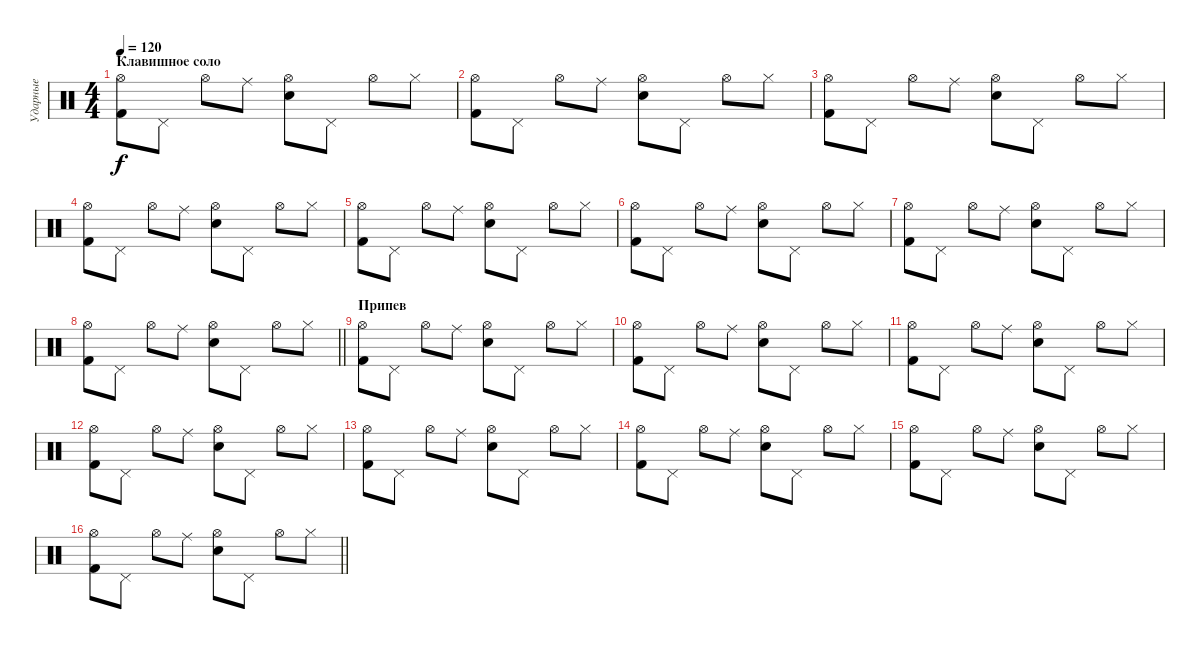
\track ("Ударные" "Ударные") {instrument percussion}
\staff {score}
\articulation defaults
\ts (4 4)
\section ("" "Клавишное соло")
\tempo 120
\clef neutral
\ks c
("Kick (hit) 2" "Hi-Hat (open)").8{dy f} "Pedal Hi-Hat (hit)".8 "Hi-Hat (open)".8 "Ride (middle)".8 ("Snare (hit) 2" "Hi-Hat (open)").8 "Pedal Hi-Hat (hit)".8 "Hi-Hat (open)".8 "Hi-Hat (closed)".8 |
("Kick (hit) 2" "Hi-Hat (open)").8 "Pedal Hi-Hat (hit)".8 "Hi-Hat (open)".8 "Ride (middle)".8 ("Snare (hit) 2" "Hi-Hat (open)").8 "Pedal Hi-Hat (hit)".8 "Hi-Hat (open)".8 "Hi-Hat (closed)".8 |
("Kick (hit) 2" "Hi-Hat (open)").8 "Pedal Hi-Hat (hit)".8 "Hi-Hat (open)".8 "Ride (middle)".8 ("Snare (hit) 2" "Hi-Hat (open)").8 "Pedal Hi-Hat (hit)".8 "Hi-Hat (open)".8 "Hi-Hat (closed)".8 |
("Kick (hit) 2" "Hi-Hat (open)").8 "Pedal Hi-Hat (hit)".8 "Hi-Hat (open)".8 "Ride (middle)".8 ("Snare (hit) 2" "Hi-Hat (open)").8 "Pedal Hi-Hat (hit)".8 "Hi-Hat (open)".8 "Hi-Hat (closed)".8 |
("Kick (hit) 2" "Hi-Hat (open)").8 "Pedal Hi-Hat (hit)".8 "Hi-Hat (open)".8 "Ride (middle)".8 ("Snare (hit) 2" "Hi-Hat (open)").8 "Pedal Hi-Hat (hit)".8 "Hi-Hat (open)".8 "Hi-Hat (closed)".8 |
("Kick (hit) 2" "Hi-Hat (open)").8 "Pedal Hi-Hat (hit)".8 "Hi-Hat (open)".8 "Ride (middle)".8 ("Snare (hit) 2" "Hi-Hat (open)").8 "Pedal Hi-Hat (hit)".8 "Hi-Hat (open)".8 "Hi-Hat (closed)".8 |
("Kick (hit) 2" "Hi-Hat (open)").8 "Pedal Hi-Hat (hit)".8 "Hi-Hat (open)".8 "Ride (middle)".8 ("Snare (hit) 2" "Hi-Hat (open)").8 "Pedal Hi-Hat (hit)".8 "Hi-Hat (open)".8 "Hi-Hat (closed)".8 |
\barLineRight lightlight
("Kick (hit) 2" "Hi-Hat (open)").8 "Pedal Hi-Hat (hit)".8 "Hi-Hat (open)".8 "Ride (middle)".8 ("Snare (hit) 2" "Hi-Hat (open)").8 "Pedal Hi-Hat (hit)".8 "Hi-Hat (open)".8 "Hi-Hat (closed)".8 |
\section ("" "Припев")
("Kick (hit) 2" "Hi-Hat (open)").8 "Pedal Hi-Hat (hit)".8 "Hi-Hat (open)".8 "Ride (middle)".8 ("Snare (hit) 2" "Hi-Hat (open)").8 "Pedal Hi-Hat (hit)".8 "Hi-Hat (open)".8 "Hi-Hat (closed)".8 |
("Kick (hit) 2" "Hi-Hat (open)").8 "Pedal Hi-Hat (hit)".8 "Hi-Hat (open)".8 "Ride (middle)".8 ("Snare (hit) 2" "Hi-Hat (open)").8 "Pedal Hi-Hat (hit)".8 "Hi-Hat (open)".8 "Hi-Hat (closed)".8 |
("Kick (hit) 2" "Hi-Hat (open)").8 "Pedal Hi-Hat (hit)".8 "Hi-Hat (open)".8 "Ride (middle)".8 ("Snare (hit) 2" "Hi-Hat (open)").8 "Pedal Hi-Hat (hit)".8 "Hi-Hat (open)".8 "Hi-Hat (closed)".8 |
("Kick (hit) 2" "Hi-Hat (open)").8 "Pedal Hi-Hat (hit)".8 "Hi-Hat (open)".8 "Ride (middle)".8 ("Snare (hit) 2" "Hi-Hat (open)").8 "Pedal Hi-Hat (hit)".8 "Hi-Hat (open)".8 "Hi-Hat (closed)".8 |
("Kick (hit) 2" "Hi-Hat (open)").8 "Pedal Hi-Hat (hit)".8 "Hi-Hat (open)".8 "Ride (middle)".8 ("Snare (hit) 2" "Hi-Hat (open)").8 "Pedal Hi-Hat (hit)".8 "Hi-Hat (open)".8 "Hi-Hat (closed)".8 |
("Kick (hit) 2" "Hi-Hat (open)").8 "Pedal Hi-Hat (hit)".8 "Hi-Hat (open)".8 "Ride (middle)".8 ("Snare (hit) 2" "Hi-Hat (open)").8 "Pedal Hi-Hat (hit)".8 "Hi-Hat (open)".8 "Hi-Hat (closed)".8 |
("Kick (hit) 2" "Hi-Hat (open)").8 "Pedal Hi-Hat (hit)".8 "Hi-Hat (open)".8 "Ride (middle)".8 ("Snare (hit) 2" "Hi-Hat (open)").8 "Pedal Hi-Hat (hit)".8 "Hi-Hat (open)".8 "Hi-Hat (closed)".8 |
\barLineRight lightlight
("Kick (hit) 2" "Hi-Hat (open)").8 "Pedal Hi-Hat (hit)".8 "Hi-Hat (open)".8 "Ride (middle)".8 ("Snare (hit) 2" "Hi-Hat (open)").8 "Pedal Hi-Hat (hit)".8 "Hi-Hat (open)".8 "Hi-Hat (closed)".8
